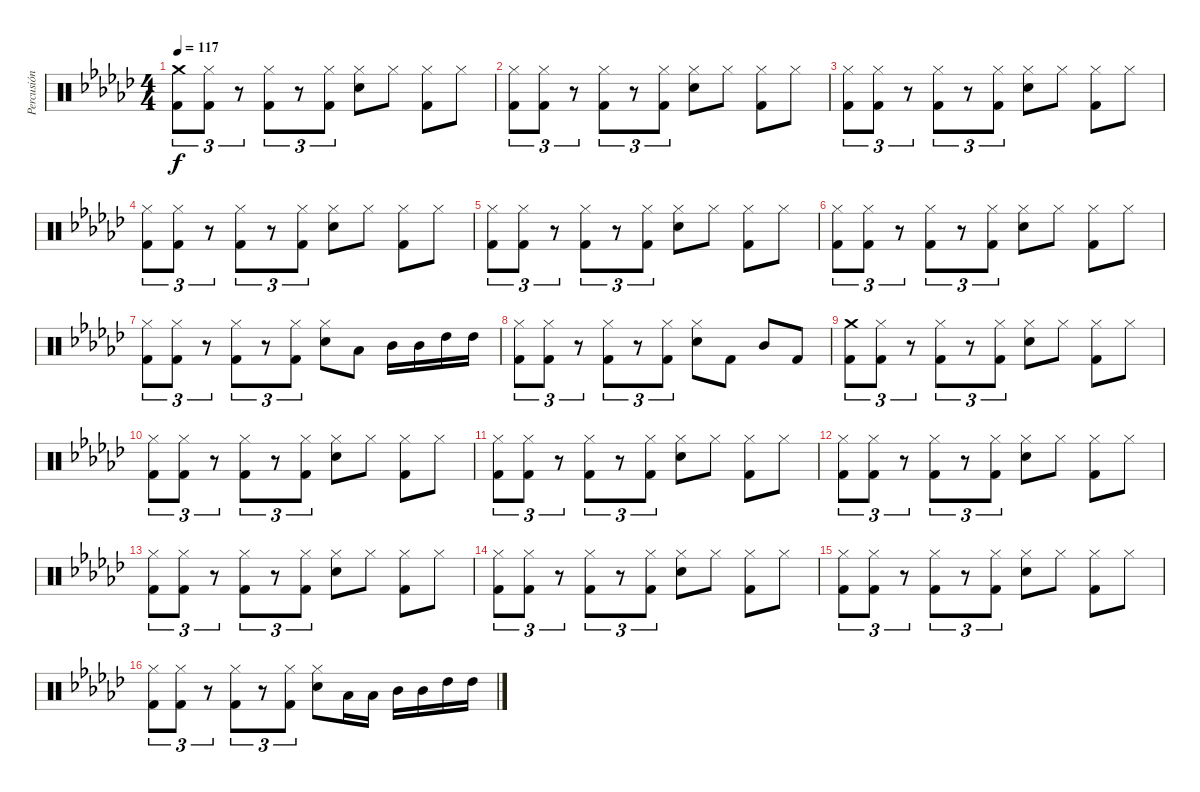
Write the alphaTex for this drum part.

\track ("Percusión" "Percusión") {instrument percussion}
\staff {score}
\articulation defaults
\ts (4 4)
\tempo 117
\clef neutral
\ks ebminor
("Kick (hit) 2" "Crash medium (hit)").8{tu (3 2) dy f} ("Kick (hit) 2" "Hi-Hat (closed)").8{tu (3 2)} r.8{tu (3 2)} ("Kick (hit) 2" "Hi-Hat (closed)").8{tu (3 2)} r.8{tu (3 2)} ("Kick (hit) 2" "Hi-Hat (closed)").8{tu (3 2)} ("Electric Snare (hit)" "Hi-Hat (closed)").8 "Hi-Hat (closed)".8 ("Kick (hit) 2" "Hi-Hat (closed)").8 "Hi-Hat (closed)".8 |
("Kick (hit) 2" "Hi-Hat (closed)").8{tu (3 2)} ("Kick (hit) 2" "Hi-Hat (closed)").8{tu (3 2)} r.8{tu (3 2)} ("Kick (hit) 2" "Hi-Hat (closed)").8{tu (3 2)} r.8{tu (3 2)} ("Kick (hit) 2" "Hi-Hat (closed)").8{tu (3 2)} ("Electric Snare (hit)" "Hi-Hat (closed)").8 "Hi-Hat (closed)".8 ("Kick (hit) 2" "Hi-Hat (closed)").8 "Hi-Hat (closed)".8 |
("Kick (hit) 2" "Hi-Hat (closed)").8{tu (3 2)} ("Kick (hit) 2" "Hi-Hat (closed)").8{tu (3 2)} r.8{tu (3 2)} ("Kick (hit) 2" "Hi-Hat (closed)").8{tu (3 2)} r.8{tu (3 2)} ("Kick (hit) 2" "Hi-Hat (closed)").8{tu (3 2)} ("Electric Snare (hit)" "Hi-Hat (closed)").8 "Hi-Hat (closed)".8 ("Kick (hit) 2" "Hi-Hat (closed)").8 "Hi-Hat (closed)".8 |
("Kick (hit) 2" "Hi-Hat (closed)").8{tu (3 2)} ("Kick (hit) 2" "Hi-Hat (closed)").8{tu (3 2)} r.8{tu (3 2)} ("Kick (hit) 2" "Hi-Hat (closed)").8{tu (3 2)} r.8{tu (3 2)} ("Kick (hit) 2" "Hi-Hat (closed)").8{tu (3 2)} ("Electric Snare (hit)" "Hi-Hat (closed)").8 "Hi-Hat (closed)".8 ("Kick (hit) 2" "Hi-Hat (closed)").8 "Hi-Hat (closed)".8 |
("Kick (hit) 2" "Hi-Hat (closed)").8{tu (3 2)} ("Kick (hit) 2" "Hi-Hat (closed)").8{tu (3 2)} r.8{tu (3 2)} ("Kick (hit) 2" "Hi-Hat (closed)").8{tu (3 2)} r.8{tu (3 2)} ("Kick (hit) 2" "Hi-Hat (closed)").8{tu (3 2)} ("Electric Snare (hit)" "Hi-Hat (closed)").8 "Hi-Hat (closed)".8 ("Kick (hit) 2" "Hi-Hat (closed)").8 "Hi-Hat (closed)".8 |
("Kick (hit) 2" "Hi-Hat (closed)").8{tu (3 2)} ("Kick (hit) 2" "Hi-Hat (closed)").8{tu (3 2)} r.8{tu (3 2)} ("Kick (hit) 2" "Hi-Hat (closed)").8{tu (3 2)} r.8{tu (3 2)} ("Kick (hit) 2" "Hi-Hat (closed)").8{tu (3 2)} ("Electric Snare (hit)" "Hi-Hat (closed)").8 "Hi-Hat (closed)".8 ("Kick (hit) 2" "Hi-Hat (closed)").8 "Hi-Hat (closed)".8 |
("Kick (hit) 2" "Hi-Hat (closed)").8{tu (3 2)} ("Kick (hit) 2" "Hi-Hat (closed)").8{tu (3 2)} r.8{tu (3 2)} ("Kick (hit) 2" "Hi-Hat (closed)").8{tu (3 2)} r.8{tu (3 2)} ("Kick (hit) 2" "Hi-Hat (closed)").8{tu (3 2)} ("Electric Snare (hit)" "Hi-Hat (closed)").8 "Low Tom (hit)".8 "Mid Tom (hit)".16 "Mid Tom (hit)".16 "High Tom (hit)".16 "High Tom (hit)".16 |
("Kick (hit) 2" "Hi-Hat (closed)").8{tu (3 2)} ("Kick (hit) 2" "Hi-Hat (closed)").8{tu (3 2)} r.8{tu (3 2)} ("Kick (hit) 2" "Hi-Hat (closed)").8{tu (3 2)} r.8{tu (3 2)} ("Kick (hit) 2" "Hi-Hat (closed)").8{tu (3 2)} ("Electric Snare (hit)" "Hi-Hat (closed)").8 "Kick (hit) 2".8 "Mid Tom (hit)".8 "Kick (hit) 2".8 |
("Kick (hit) 2" "Crash medium (hit)").8{tu (3 2)} ("Kick (hit) 2" "Hi-Hat (closed)").8{tu (3 2)} r.8{tu (3 2)} ("Kick (hit) 2" "Hi-Hat (closed)").8{tu (3 2)} r.8{tu (3 2)} ("Kick (hit) 2" "Hi-Hat (closed)").8{tu (3 2)} ("Electric Snare (hit)" "Hi-Hat (closed)").8 "Hi-Hat (closed)".8 ("Kick (hit) 2" "Hi-Hat (closed)").8 "Hi-Hat (closed)".8 |
("Kick (hit) 2" "Hi-Hat (closed)").8{tu (3 2)} ("Kick (hit) 2" "Hi-Hat (closed)").8{tu (3 2)} r.8{tu (3 2)} ("Kick (hit) 2" "Hi-Hat (closed)").8{tu (3 2)} r.8{tu (3 2)} ("Kick (hit) 2" "Hi-Hat (closed)").8{tu (3 2)} ("Electric Snare (hit)" "Hi-Hat (closed)").8 "Hi-Hat (closed)".8 ("Kick (hit) 2" "Hi-Hat (closed)").8 "Hi-Hat (closed)".8 |
("Kick (hit) 2" "Hi-Hat (closed)").8{tu (3 2)} ("Kick (hit) 2" "Hi-Hat (closed)").8{tu (3 2)} r.8{tu (3 2)} ("Kick (hit) 2" "Hi-Hat (closed)").8{tu (3 2)} r.8{tu (3 2)} ("Kick (hit) 2" "Hi-Hat (closed)").8{tu (3 2)} ("Electric Snare (hit)" "Hi-Hat (closed)").8 "Hi-Hat (closed)".8 ("Kick (hit) 2" "Hi-Hat (closed)").8 "Hi-Hat (closed)".8 |
("Kick (hit) 2" "Hi-Hat (closed)").8{tu (3 2)} ("Kick (hit) 2" "Hi-Hat (closed)").8{tu (3 2)} r.8{tu (3 2)} ("Kick (hit) 2" "Hi-Hat (closed)").8{tu (3 2)} r.8{tu (3 2)} ("Kick (hit) 2" "Hi-Hat (closed)").8{tu (3 2)} ("Electric Snare (hit)" "Hi-Hat (closed)").8 "Hi-Hat (closed)".8 ("Kick (hit) 2" "Hi-Hat (closed)").8 "Hi-Hat (closed)".8 |
("Kick (hit) 2" "Hi-Hat (closed)").8{tu (3 2)} ("Kick (hit) 2" "Hi-Hat (closed)").8{tu (3 2)} r.8{tu (3 2)} ("Kick (hit) 2" "Hi-Hat (closed)").8{tu (3 2)} r.8{tu (3 2)} ("Kick (hit) 2" "Hi-Hat (closed)").8{tu (3 2)} ("Electric Snare (hit)" "Hi-Hat (closed)").8 "Hi-Hat (closed)".8 ("Kick (hit) 2" "Hi-Hat (closed)").8 "Hi-Hat (closed)".8 |
("Kick (hit) 2" "Hi-Hat (closed)").8{tu (3 2)} ("Kick (hit) 2" "Hi-Hat (closed)").8{tu (3 2)} r.8{tu (3 2)} ("Kick (hit) 2" "Hi-Hat (closed)").8{tu (3 2)} r.8{tu (3 2)} ("Kick (hit) 2" "Hi-Hat (closed)").8{tu (3 2)} ("Electric Snare (hit)" "Hi-Hat (closed)").8 "Hi-Hat (closed)".8 ("Kick (hit) 2" "Hi-Hat (closed)").8 "Hi-Hat (closed)".8 |
("Kick (hit) 2" "Hi-Hat (closed)").8{tu (3 2)} ("Kick (hit) 2" "Hi-Hat (closed)").8{tu (3 2)} r.8{tu (3 2)} ("Kick (hit) 2" "Hi-Hat (closed)").8{tu (3 2)} r.8{tu (3 2)} ("Kick (hit) 2" "Hi-Hat (closed)").8{tu (3 2)} ("Electric Snare (hit)" "Hi-Hat (closed)").8 "Hi-Hat (closed)".8 ("Kick (hit) 2" "Hi-Hat (closed)").8 "Hi-Hat (closed)".8 |
("Kick (hit) 2" "Hi-Hat (closed)").8{tu (3 2)} ("Kick (hit) 2" "Hi-Hat (closed)").8{tu (3 2)} r.8{tu (3 2)} ("Kick (hit) 2" "Hi-Hat (closed)").8{tu (3 2)} r.8{tu (3 2)} ("Kick (hit) 2" "Hi-Hat (closed)").8{tu (3 2)} ("Electric Snare (hit)" "Hi-Hat (closed)").8 "Low Tom (hit)".16 "Low Tom (hit)".16 "Mid Tom (hit)".16 "Mid Tom (hit)".16 "High Tom (hit)".16 "High Tom (hit)".16
